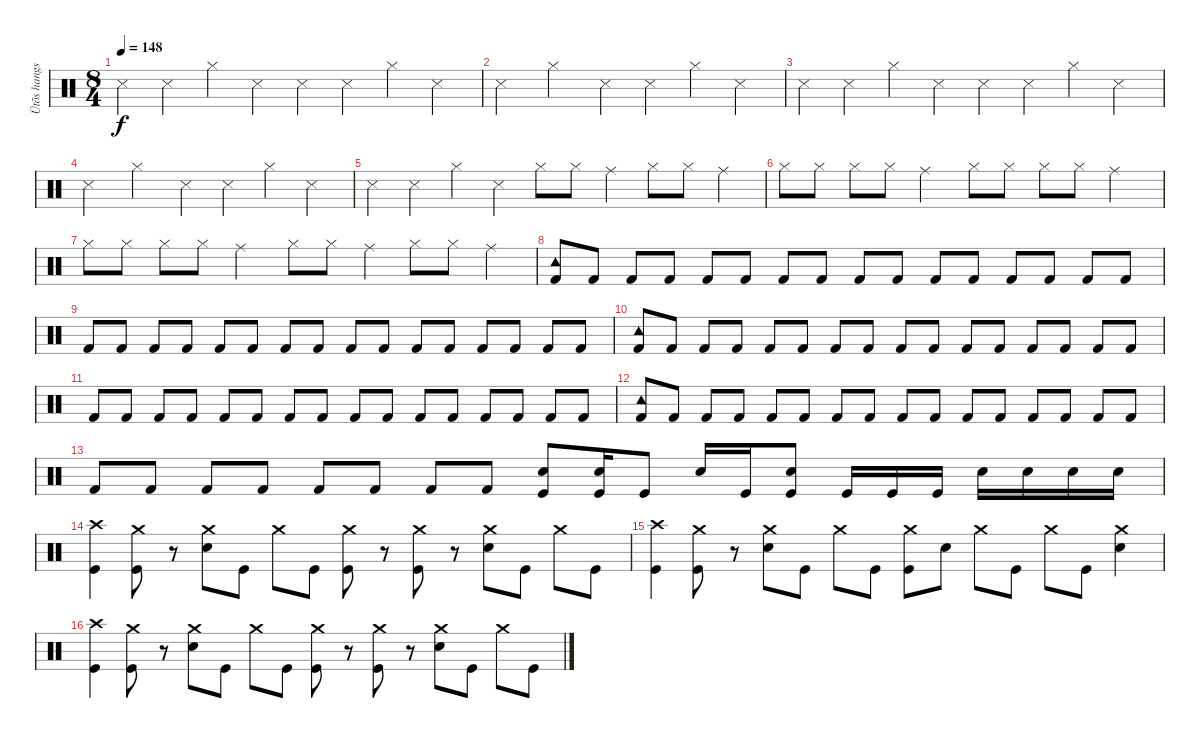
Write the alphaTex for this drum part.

\track ("Ütõs hangszer" "Ütõs hangs") {instrument percussion}
\staff {score}
\articulation defaults
\ts (8 4)
\tempo 148
\clef neutral
\ks c "Snare (side stick) 3".4{dy f} "Snare (side stick) 3".4 "Hi-Hat (closed)".4 "Snare (side stick) 3".4 "Snare (side stick) 3".4 "Snare (side stick) 3".4 "Hi-Hat (closed)".4 "Snare (side stick) 3".4
|
"Snare (side stick) 3".2 "Hi-Hat (closed)".2 "Snare (side stick) 3".4 "Snare (side stick) 3".4 "Hi-Hat (closed)".4 "Snare (side stick) 3".4 |
"Snare (side stick) 3".4 "Snare (side stick) 3".4 "Hi-Hat (closed)".4 "Snare (side stick) 3".4 "Snare (side stick) 3".4 "Snare (side stick) 3".4 "Hi-Hat (closed)".4 "Snare (side stick) 3".4 |
"Snare (side stick) 3".2 "Hi-Hat (closed)".2 "Snare (side stick) 3".4 "Snare (side stick) 3".4 "Hi-Hat (closed)".4 "Snare (side stick) 3".4 |
"Snare (side stick) 3".4 "Snare (side stick) 3".4 "Hi-Hat (closed)".4 "Snare (side stick) 3".4 "Hi-Hat (closed)".8 "Hi-Hat (closed)".8 "Ride (middle)".4 "Hi-Hat (closed)".8 "Hi-Hat (closed)".8 "Ride (middle)".4 |
"Hi-Hat (closed)".8 "Hi-Hat (closed)".8 "Hi-Hat (closed)".8 "Hi-Hat (closed)".8 "Ride (middle)".2 "Hi-Hat (closed)".8 "Hi-Hat (closed)".8 "Hi-Hat (closed)".8 "Hi-Hat (closed)".8 "Ride (middle)".2 |
"Hi-Hat (closed)".8 "Hi-Hat (closed)".8 "Hi-Hat (closed)".8 "Hi-Hat (closed)".8 "Ride (middle)".2 "Hi-Hat (closed)".8 "Hi-Hat (closed)".8 "Ride (middle)".4 "Hi-Hat (closed)".8 "Hi-Hat (closed)".8 "Ride (middle)".4 |
("Tambourine (hit)" "Kick (hit) 2").8 "Kick (hit) 2".8 "Kick (hit) 2".8 "Kick (hit) 2".8 "Kick (hit) 2".8 "Kick (hit) 2".8 "Kick (hit) 2".8 "Kick (hit) 2".8 "Kick (hit) 2".8 "Kick (hit) 2".8 "Kick (hit) 2".8 "Kick (hit) 2".8 "Kick (hit) 2".8 "Kick (hit) 2".8 "Kick (hit) 2".8 "Kick (hit) 2".8 |
"Kick (hit) 2".8 "Kick (hit) 2".8 "Kick (hit) 2".8 "Kick (hit) 2".8 "Kick (hit) 2".8 "Kick (hit) 2".8 "Kick (hit) 2".8 "Kick (hit) 2".8 "Kick (hit) 2".8 "Kick (hit) 2".8 "Kick (hit) 2".8 "Kick (hit) 2".8 "Kick (hit) 2".8 "Kick (hit) 2".8 "Kick (hit) 2".8 "Kick (hit) 2".8 |
("Tambourine (hit)" "Kick (hit) 2").8 "Kick (hit) 2".8 "Kick (hit) 2".8 "Kick (hit) 2".8 "Kick (hit) 2".8 "Kick (hit) 2".8 "Kick (hit) 2".8 "Kick (hit) 2".8 "Kick (hit) 2".8 "Kick (hit) 2".8 "Kick (hit) 2".8 "Kick (hit) 2".8 "Kick (hit) 2".8 "Kick (hit) 2".8 "Kick (hit) 2".8 "Kick (hit) 2".8 |
"Kick (hit) 2".8 "Kick (hit) 2".8 "Kick (hit) 2".8 "Kick (hit) 2".8 "Kick (hit) 2".8 "Kick (hit) 2".8 "Kick (hit) 2".8 "Kick (hit) 2".8 "Kick (hit) 2".8 "Kick (hit) 2".8 "Kick (hit) 2".8 "Kick (hit) 2".8 "Kick (hit) 2".8 "Kick (hit) 2".8 "Kick (hit) 2".8 "Kick (hit) 2".8 |
("Tambourine (hit)" "Kick (hit) 2").8 "Kick (hit) 2".8 "Kick (hit) 2".8 "Kick (hit) 2".8 "Kick (hit) 2".8 "Kick (hit) 2".8 "Kick (hit) 2".8 "Kick (hit) 2".8 "Kick (hit) 2".8 "Kick (hit) 2".8 "Kick (hit) 2".8 "Kick (hit) 2".8 "Kick (hit) 2".8 "Kick (hit) 2".8 "Kick (hit) 2".8 "Kick (hit) 2".8 |
"Kick (hit) 2".8 "Kick (hit) 2".8 "Kick (hit) 2".8 "Kick (hit) 2".8 "Kick (hit) 2".8 "Kick (hit) 2".8 "Kick (hit) 2".8 "Kick (hit) 2".8 ("Electric Snare (hit)" "Kick (hit)").8 ("Electric Snare (hit)" "Kick (hit)").16 "Kick (hit)".8 "Electric Snare (hit)".16 "Kick (hit)".16 ("Electric Snare (hit)" "Kick (hit)").8 "Kick (hit)".16 "Kick (hit)".16 "Kick (hit)".16 "Electric Snare (hit)".16 "Electric Snare (hit)".16 "Electric Snare (hit)".16 "Electric Snare (hit)".16 |
("Crash high (hit)" "Kick (hit)").4 ("Crash medium (hit)" "Kick (hit)").8 r.8 ("Crash medium (hit)" "Electric Snare (hit)").8 "Kick (hit)".8 "Crash medium (hit)".8 "Kick (hit)".8 ("Crash medium (hit)" "Kick (hit)").8 r.8 ("Crash medium (hit)" "Kick (hit)").8 r.8 ("Crash medium (hit)" "Electric Snare (hit)").8 "Kick (hit)".8 "Crash medium (hit)".8 "Kick (hit)".8 |
("Crash high (hit)" "Kick (hit)").4 ("Crash medium (hit)" "Kick (hit)").8 r.8 ("Crash medium (hit)" "Electric Snare (hit)").8 "Kick (hit)".8 "Crash medium (hit)".8 "Kick (hit)".8 ("Crash medium (hit)" "Kick (hit)").8 "Electric Snare (hit)".8 "Crash medium (hit)".8 "Kick (hit)".8 "Crash medium (hit)".8 "Kick (hit)".8 ("Crash medium (hit)" "Electric Snare (hit)").4 |
("Crash high (hit)" "Kick (hit)").4 ("Crash medium (hit)" "Kick (hit)").8 r.8 ("Crash medium (hit)" "Electric Snare (hit)").8 "Kick (hit)".8 "Crash medium (hit)".8 "Kick (hit)".8 ("Crash medium (hit)" "Kick (hit)").8 r.8 ("Crash medium (hit)" "Kick (hit)").8 r.8 ("Crash medium (hit)" "Electric Snare (hit)").8 "Kick (hit)".8 "Crash medium (hit)".8 "Kick (hit)".8
